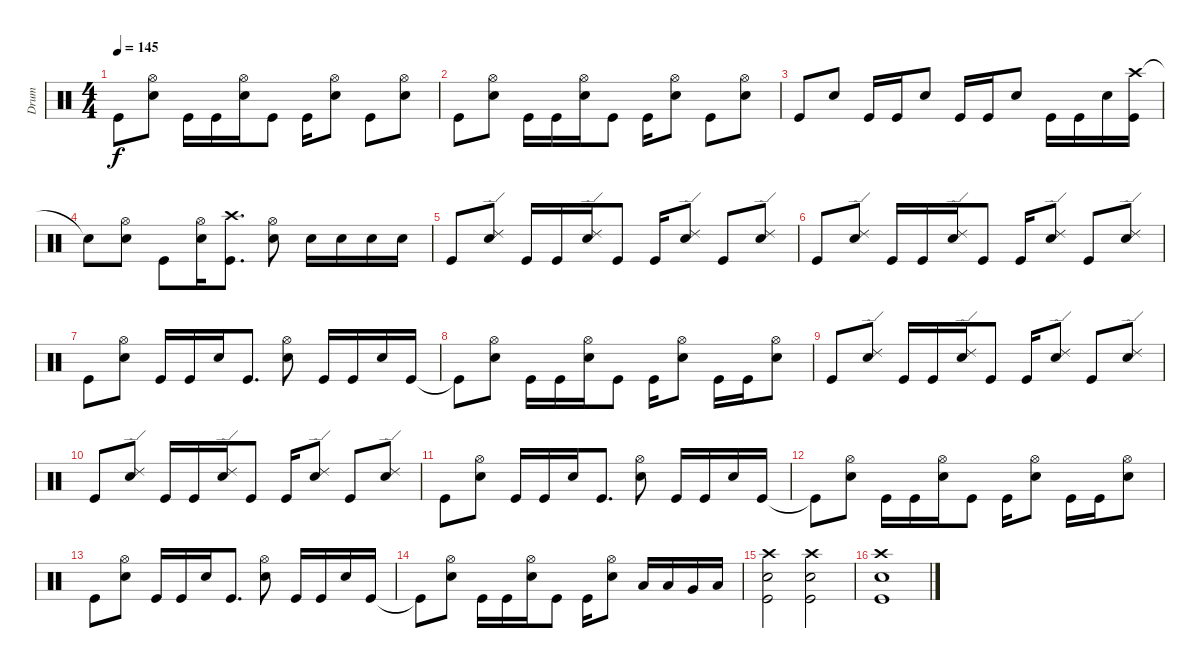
\track ("Drum" "Drum") {instrument percussion}
\staff {score}
\articulation defaults
\ts (4 4)
\tempo 145
\clef neutral
\ks c "Kick (hit)".8{dy f}
("Hi-Hat (open)" "Snare (hit) 2").8 "Kick (hit)".16 "Kick (hit)".16 ("Hi-Hat (open)" "Snare (hit) 2").16 "Kick (hit)".8 "Kick (hit)".16 ("Hi-Hat (open)" "Snare (hit) 2").8 "Kick (hit)".8 ("Hi-Hat (open)" "Snare (hit) 2").8 |
"Kick (hit)".8 ("Hi-Hat (open)" "Snare (hit) 2").8 "Kick (hit)".16 "Kick (hit)".16 ("Hi-Hat (open)" "Snare (hit) 2").16 "Kick (hit)".8 "Kick (hit)".16 ("Hi-Hat (open)" "Snare (hit) 2").8 "Kick (hit)".8 ("Hi-Hat (open)" "Snare (hit) 2").8 |
"Kick (hit)".8 "Snare (hit) 2".8 "Kick (hit)".16 "Kick (hit)".16 "Snare (hit) 2".8 "Kick (hit)".16 "Kick (hit)".16 "Snare (hit) 2".8 "Kick (hit)".16 "Kick (hit)".16 "Snare (hit) 2".16 ("Crash high (hit)" "Kick (hit)").16 |
"Snare (hit)"{t}.8 ("Hi-Hat (open)" "Snare (hit) 2").8 "Kick (hit)".8 ("Hi-Hat (open)" "Snare (hit) 2").16 ("Crash high (hit)" "Kick (hit)").8{d} ("Hi-Hat (open)" "Snare (hit) 2").8 "Snare (hit) 2".16 "Snare (hit) 2".16 "Snare (hit) 2".16 "Snare (hit) 2".16 |
"Kick (hit)".8 ("Ride (edge) 2" "Snare (hit) 2").8 "Kick (hit)".16 "Kick (hit)".16 ("Ride (edge) 2" "Snare (hit) 2").16 "Kick (hit)".8 "Kick (hit)".16 ("Ride (edge) 2" "Snare (hit) 2").8 "Kick (hit)".8 ("Ride (edge) 2" "Snare (hit) 2").8 |
"Kick (hit)".8 ("Ride (edge) 2" "Snare (hit) 2").8 "Kick (hit)".16 "Kick (hit)".16 ("Ride (edge) 2" "Snare (hit) 2").16 "Kick (hit)".8 "Kick (hit)".16 ("Ride (edge) 2" "Snare (hit) 2").8 "Kick (hit)".8 ("Ride (edge) 2" "Snare (hit) 2").8 |
"Kick (hit)".8 ("Hi-Hat (open)" "Snare (hit) 2").8 "Kick (hit)".16 "Kick (hit)".16 "Snare (hit) 2".16 "Kick (hit)".8{d} ("Hi-Hat (open)" "Snare (hit) 2").8 "Kick (hit)".16 "Kick (hit)".16 "Snare (hit) 2".16 "Kick (hit)".16 |
"Kick (hit)"{t}.8 ("Hi-Hat (open)" "Snare (hit) 2").8 "Kick (hit)".16 "Kick (hit)".16 ("Hi-Hat (open)" "Snare (hit) 2").16 "Kick (hit)".8 "Kick (hit)".16 ("Hi-Hat (open)" "Snare (hit) 2").8 "Kick (hit)".16 "Kick (hit)".16 ("Hi-Hat (open)" "Snare (hit) 2").8 |
"Kick (hit)".8 ("Ride (edge) 2" "Snare (hit) 2").8 "Kick (hit)".16 "Kick (hit)".16 ("Ride (edge) 2" "Snare (hit) 2").16 "Kick (hit)".8 "Kick (hit)".16 ("Ride (edge) 2" "Snare (hit) 2").8 "Kick (hit)".8 ("Ride (edge) 2" "Snare (hit) 2").8 |
"Kick (hit)".8 ("Ride (edge) 2" "Snare (hit) 2").8 "Kick (hit)".16 "Kick (hit)".16 ("Ride (edge) 2" "Snare (hit) 2").16 "Kick (hit)".8 "Kick (hit)".16 ("Ride (edge) 2" "Snare (hit) 2").8 "Kick (hit)".8 ("Ride (edge) 2" "Snare (hit) 2").8 |
"Kick (hit)".8 ("Hi-Hat (open)" "Snare (hit) 2").8 "Kick (hit)".16 "Kick (hit)".16 "Snare (hit) 2".16 "Kick (hit)".8{d} ("Hi-Hat (open)" "Snare (hit) 2").8 "Kick (hit)".16 "Kick (hit)".16 "Snare (hit) 2".16 "Kick (hit)".16 |
"Kick (hit)"{t}.8 ("Hi-Hat (open)" "Snare (hit) 2").8 "Kick (hit)".16 "Kick (hit)".16 ("Hi-Hat (open)" "Snare (hit) 2").16 "Kick (hit)".8 "Kick (hit)".16 ("Hi-Hat (open)" "Snare (hit) 2").8 "Kick (hit)".16 "Kick (hit)".16 ("Hi-Hat (open)" "Snare (hit) 2").8 |
"Kick (hit)".8 ("Hi-Hat (open)" "Snare (hit) 2").8 "Kick (hit)".16 "Kick (hit)".16 "Snare (hit) 2".16 "Kick (hit)".8{d} ("Hi-Hat (open)" "Snare (hit) 2").8 "Kick (hit)".16 "Kick (hit)".16 "Snare (hit) 2".16 "Kick (hit)".16 |
"Kick (hit)"{t}.8 ("Hi-Hat (open)" "Snare (hit) 2").8 "Kick (hit)".16 "Kick (hit)".16 ("Hi-Hat (open)" "Snare (hit) 2").16 "Kick (hit)".8 "Kick (hit)".16 ("Hi-Hat (open)" "Snare (hit) 2").8 "Low Tom (hit)".16 "Low Tom (hit)".16 "Very Low Tom (hit)".16 "Low Floor Tom (hit)".16 |
("Crash high (hit)" "Snare (hit) 2" "Kick (hit)").2 ("Crash high (hit)" "Snare (hit) 2" "Kick (hit)").2 |
("Crash high (hit)" "Snare (hit) 2" "Kick (hit)").1
